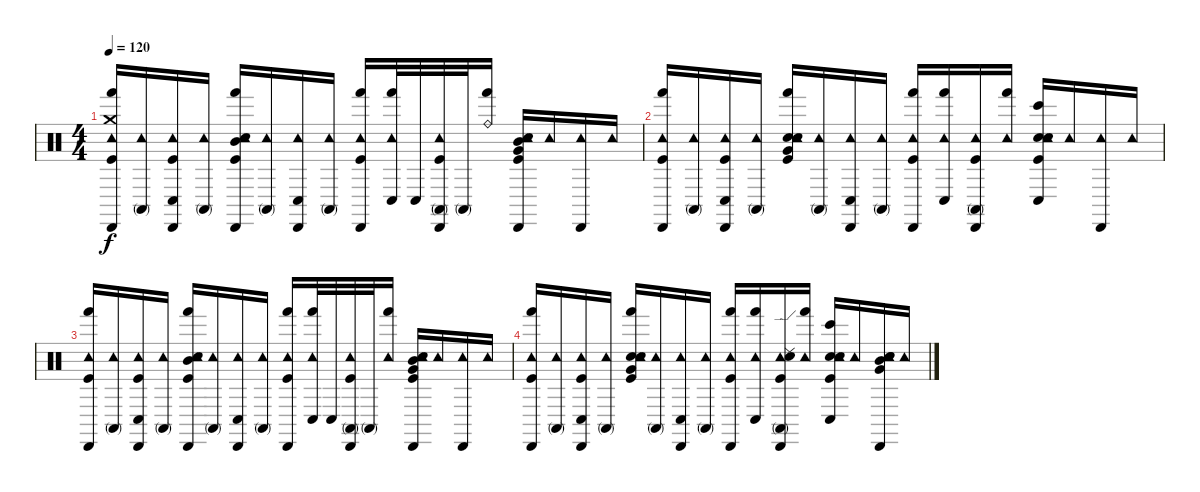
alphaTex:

\track "" {instrument percussion}
\staff {score}
\articulation defaults
\ts (4 4)
\tempo 120
\clef neutral
\ks c
("Hand (hit)" "Kick (hit)" "Cabasa (hit)" "Crash medium (hit)" "Tambourine (hit)").16{dy f} ("Conga high (mute)" "Tambourine (hit)").16 ("Conga low (hit)" "Kick (hit)" "Cabasa (hit)" "Tambourine (hit)").16 ("Conga high (mute)" "Tambourine (hit)").16 ("Hand (hit)" "Kick (hit)" "Tambourine (hit)" "Snare (hit) 2" "Cabasa (hit)" "Mid Tom (hit)").16 ("Conga high (mute)" "Tambourine (hit)").16 ("Conga low (hit)" "Cabasa (hit)" "Tambourine (hit)").16 ("Conga high (mute)" "Tambourine (hit)").16 ("Hand (hit)" "Kick (hit)" "Cabasa (hit)" "Tambourine (hit)").16 ("Conga low (hit)" "Hand (hit)" "Tambourine (hit)").32 "Conga low (hit)".32 ("Conga high (mute)" "Kick (hit)" "Cabasa (hit)" "Tambourine (hit)").32 "Conga high (mute)".32 ("Hand (hit)" "Ride (bell)").16 ("Kick (hit)" "Snare (hit) 2" "Tambourine (hit)" "Cabasa (hit)" "Mid Tom (hit)" "Very Low Tom (hit)").16 "Tambourine (hit)".16 ("Cabasa (hit)" "Tambourine (hit)").16 "Tambourine (hit)".16 |
("Hand (hit)" "Kick (hit)" "Cabasa (hit)" "Tambourine (hit)").16 ("Conga high (mute)" "Tambourine (hit)").16 ("Conga low (hit)" "Kick (hit)" "Cabasa (hit)" "Tambourine (hit)").16 ("Conga high (mute)" "Tambourine (hit)").16 ("Hand (hit)" "Kick (hit)" "Snare (hit) 2" "Tambourine (hit)" "Electric Snare (hit)" "Very Low Tom (hit)").16 ("Conga high (mute)" "Tambourine (hit)").16 ("Conga low (hit)" "Cabasa (hit)" "Tambourine (hit)").16 ("Conga high (mute)" "Tambourine (hit)").16 ("Hand (hit)" "Kick (hit)" "Cabasa (hit)" "Tambourine (hit)").16 ("Conga low (hit)" "Hand (hit)" "Tambourine (hit)").16 ("Conga high (mute)" "Kick (hit)" "Cabasa (hit)" "Tambourine (hit)").16 ("Hand (hit)" "Tambourine (hit)").16 ("Kick (hit)" "Snare (hit) 2" "Tambourine (hit)" "Bongo High (hit)" "Conga low (hit)" "Electric Snare (hit)").16 "Tambourine (hit)".16 ("Cabasa (hit)" "Tambourine (hit)").16 "Tambourine (hit)".16 |
("Hand (hit)" "Kick (hit)" "Cabasa (hit)" "Tambourine (hit)").16 ("Conga high (mute)" "Tambourine (hit)").16 ("Conga low (hit)" "Kick (hit)" "Cabasa (hit)" "Tambourine (hit)").16 ("Conga high (mute)" "Tambourine (hit)").16 ("Hand (hit)" "Kick (hit)" "Tambourine (hit)" "Snare (hit) 2" "Cabasa (hit)" "Mid Tom (hit)").16 ("Conga high (mute)" "Tambourine (hit)").16 ("Conga low (hit)" "Cabasa (hit)" "Tambourine (hit)").16 ("Conga high (mute)" "Tambourine (hit)").16 ("Hand (hit)" "Kick (hit)" "Cabasa (hit)" "Tambourine (hit)").16 ("Conga low (hit)" "Hand (hit)" "Tambourine (hit)").32 "Conga low (hit)".32 ("Conga high (mute)" "Kick (hit)" "Cabasa (hit)" "Tambourine (hit)").32 "Conga high (mute)".32 ("Hand (hit)" "Tambourine (hit)").16 ("Kick (hit)" "Snare (hit) 2" "Tambourine (hit)" "Cabasa (hit)" "Mid Tom (hit)" "Very Low Tom (hit)").16 "Tambourine (hit)".16 ("Cabasa (hit)" "Tambourine (hit)").16 "Tambourine (hit)".16 |
("Hand (hit)" "Kick (hit)" "Cabasa (hit)" "Tambourine (hit)").16 ("Conga high (mute)" "Tambourine (hit)").16 ("Conga low (hit)" "Kick (hit)" "Cabasa (hit)" "Tambourine (hit)").16 ("Conga high (mute)" "Tambourine (hit)").16 ("Hand (hit)" "Kick (hit)" "Snare (hit) 2" "Tambourine (hit)" "Electric Snare (hit)" "Very Low Tom (hit)").16 ("Conga high (mute)" "Tambourine (hit)").16 ("Conga low (hit)" "Cabasa (hit)" "Tambourine (hit)").16 ("Conga high (mute)" "Tambourine (hit)").16 ("Hand (hit)" "Kick (hit)" "Cabasa (hit)" "Tambourine (hit)").16 ("Conga low (hit)" "Hand (hit)" "Tambourine (hit)").16 ("Conga high (mute)" "Kick (hit)" "Cabasa (hit)" "Ride (edge) 2" "Tambourine (hit)" "Electric Snare (hit)").16 ("Hand (hit)" "Tambourine (hit)").16 ("Kick (hit)" "Snare (hit) 2" "Tambourine (hit)" "Bongo High (hit)" "Conga low (hit)" "Electric Snare (hit)").16 "Tambourine (hit)".16 ("Cabasa (hit)" "Tambourine (hit)" "Mid Tom (hit)" "Very Low Tom (hit)" "Electric Snare (hit)" "Snare (hit) 2").16 "Tambourine (hit)".16
